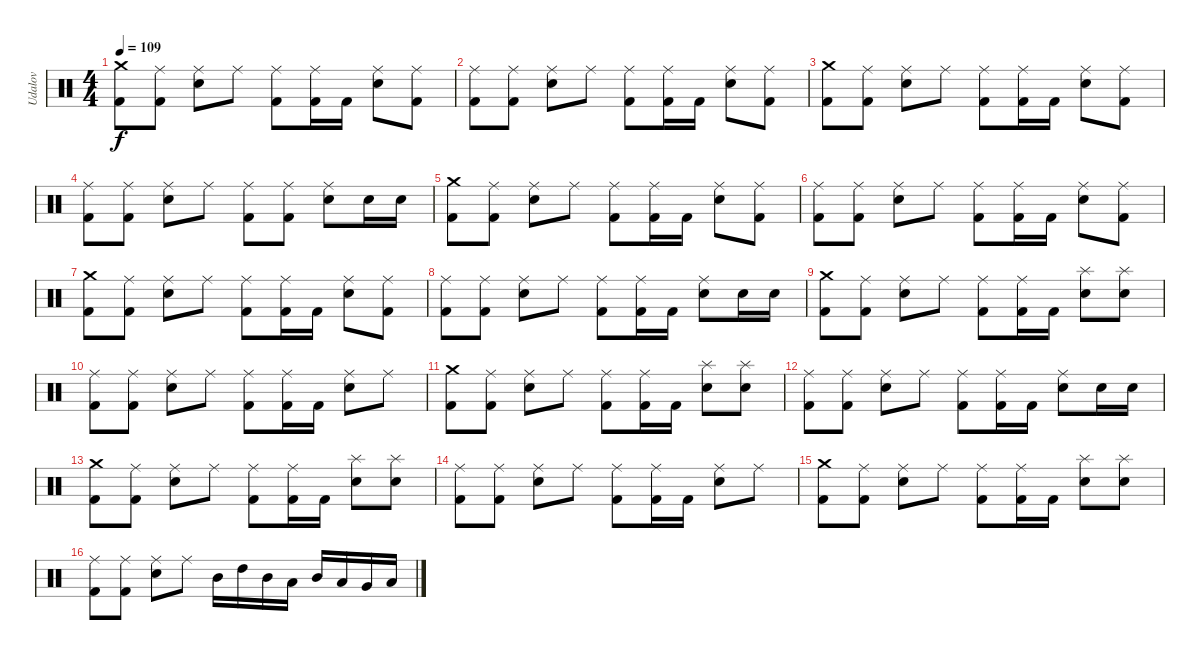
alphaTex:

\track ("Udalov" "Udalov") {instrument percussion}
\staff {score}
\articulation defaults
\ts (4 4)
\tempo 109
\clef neutral
\ks c
("Kick (hit) 2" "Crash medium (hit)").8{dy f} ("Ride (middle)" "Kick (hit) 2").8 ("Ride (middle)" "Snare (hit) 2").8 "Ride (middle)".8 ("Ride (middle)" "Kick (hit) 2").8 ("Ride (middle)" "Kick (hit) 2").16 "Kick (hit) 2".16 ("Ride (middle)" "Snare (hit) 2").8 ("Ride (middle)" "Kick (hit) 2").8 |
("Kick (hit) 2" "Ride (middle)").8 ("Kick (hit) 2" "Ride (middle)").8 ("Snare (hit) 2" "Ride (middle)").8 "Ride (middle)".8 ("Kick (hit) 2" "Ride (middle)").8 ("Kick (hit) 2" "Ride (middle)").16 "Kick (hit) 2".16 ("Snare (hit) 2" "Ride (middle)").8 ("Kick (hit) 2" "Ride (middle)").8 |
("Kick (hit) 2" "Crash medium (hit)").8 ("Ride (middle)" "Kick (hit) 2").8 ("Ride (middle)" "Snare (hit) 2").8 "Ride (middle)".8 ("Ride (middle)" "Kick (hit) 2").8 ("Ride (middle)" "Kick (hit) 2").16 "Kick (hit) 2".16 ("Ride (middle)" "Snare (hit) 2").8 ("Ride (middle)" "Kick (hit) 2").8 |
("Kick (hit) 2" "Ride (middle)").8 ("Kick (hit) 2" "Ride (middle)").8 ("Snare (hit) 2" "Ride (middle)").8 "Ride (middle)".8 ("Kick (hit) 2" "Ride (middle)").8 ("Kick (hit) 2" "Ride (middle)").8 ("Snare (hit) 2" "Ride (middle)").8 "Snare (hit) 2".16 "Snare (hit) 2".16 |
("Kick (hit) 2" "Crash medium (hit)").8 ("Ride (middle)" "Kick (hit) 2").8 ("Ride (middle)" "Snare (hit) 2").8 "Ride (middle)".8 ("Ride (middle)" "Kick (hit) 2").8 ("Ride (middle)" "Kick (hit) 2").16 "Kick (hit) 2".16 ("Ride (middle)" "Snare (hit) 2").8 ("Ride (middle)" "Kick (hit) 2").8 |
("Kick (hit) 2" "Ride (middle)").8 ("Kick (hit) 2" "Ride (middle)").8 ("Snare (hit) 2" "Ride (middle)").8 "Ride (middle)".8 ("Kick (hit) 2" "Ride (middle)").8 ("Kick (hit) 2" "Ride (middle)").16 "Kick (hit) 2".16 ("Snare (hit) 2" "Ride (middle)").8 ("Kick (hit) 2" "Ride (middle)").8 |
("Kick (hit) 2" "Crash medium (hit)").8 ("Ride (middle)" "Kick (hit) 2").8 ("Ride (middle)" "Snare (hit) 2").8 "Ride (middle)".8 ("Ride (middle)" "Kick (hit) 2").8 ("Ride (middle)" "Kick (hit) 2").16 "Kick (hit) 2".16 ("Ride (middle)" "Snare (hit) 2").8 ("Ride (middle)" "Kick (hit) 2").8 |
("Kick (hit) 2" "Ride (middle)").8 ("Kick (hit) 2" "Ride (middle)").8 ("Snare (hit) 2" "Ride (middle)").8 "Ride (middle)".8 ("Kick (hit) 2" "Ride (middle)").8 ("Kick (hit) 2" "Ride (middle)").16 "Kick (hit) 2".16 ("Snare (hit) 2" "Ride (middle)").8 "Snare (hit) 2".16 "Snare (hit) 2".16 |
("Kick (hit) 2" "Crash medium (hit)").8 ("Ride (middle)" "Kick (hit) 2").8 ("Ride (middle)" "Snare (hit) 2").8 "Ride (middle)".8 ("Ride (middle)" "Kick (hit) 2").8 ("Ride (middle)" "Kick (hit) 2").16 "Kick (hit) 2".16 ("Splash (hit)" "Snare (hit) 2").8 ("Splash (hit)" "Snare (hit) 2").8 |
("Kick (hit) 2" "Ride (middle)").8 ("Ride (middle)" "Kick (hit) 2").8 ("Ride (middle)" "Snare (hit) 2").8 "Ride (middle)".8 ("Ride (middle)" "Kick (hit) 2").8 ("Ride (middle)" "Kick (hit) 2").16 "Kick (hit) 2".16 ("Ride (middle)" "Snare (hit) 2").8 "Ride (middle)".8 |
("Kick (hit) 2" "Crash medium (hit)").8 ("Ride (middle)" "Kick (hit) 2").8 ("Ride (middle)" "Snare (hit) 2").8 "Ride (middle)".8 ("Ride (middle)" "Kick (hit) 2").8 ("Ride (middle)" "Kick (hit) 2").16 "Kick (hit) 2".16 ("Splash (hit)" "Snare (hit) 2").8 ("Splash (hit)" "Snare (hit) 2").8 |
("Kick (hit) 2" "Ride (middle)").8 ("Ride (middle)" "Kick (hit) 2").8 ("Ride (middle)" "Snare (hit) 2").8 "Ride (middle)".8 ("Ride (middle)" "Kick (hit) 2").8 ("Ride (middle)" "Kick (hit) 2").16 "Kick (hit) 2".16 ("Ride (middle)" "Snare (hit) 2").8 "Snare (hit) 2".16 "Snare (hit) 2".16 |
("Kick (hit) 2" "Crash medium (hit)").8 ("Ride (middle)" "Kick (hit) 2").8 ("Ride (middle)" "Snare (hit) 2").8 "Ride (middle)".8 ("Ride (middle)" "Kick (hit) 2").8 ("Ride (middle)" "Kick (hit) 2").16 "Kick (hit) 2".16 ("Splash (hit)" "Snare (hit) 2").8 ("Splash (hit)" "Snare (hit) 2").8 |
("Kick (hit) 2" "Ride (middle)").8 ("Ride (middle)" "Kick (hit) 2").8 ("Ride (middle)" "Snare (hit) 2").8 "Ride (middle)".8 ("Ride (middle)" "Kick (hit) 2").8 ("Ride (middle)" "Kick (hit) 2").16 "Kick (hit) 2".16 ("Ride (middle)" "Snare (hit) 2").8 "Ride (middle)".8 |
("Kick (hit) 2" "Crash medium (hit)").8 ("Ride (middle)" "Kick (hit) 2").8 ("Ride (middle)" "Snare (hit) 2").8 "Ride (middle)".8 ("Ride (middle)" "Kick (hit) 2").8 ("Ride (middle)" "Kick (hit) 2").16 "Kick (hit) 2".16 ("Splash (hit)" "Snare (hit) 2").8 ("Splash (hit)" "Snare (hit) 2").8 |
("Kick (hit) 2" "Ride (middle)").8 ("Ride (middle)" "Kick (hit) 2").8 ("Ride (middle)" "Snare (hit) 2").8 "Ride (middle)".8 "Mid Tom (hit)".16 "High Tom (hit)".16 "Mid Tom (hit)".16 "Low Tom (hit)".16 "Mid Tom (hit)".16 "Low Tom (hit)".16 "Very Low Tom (hit)".16 "Low Floor Tom (hit)".16
